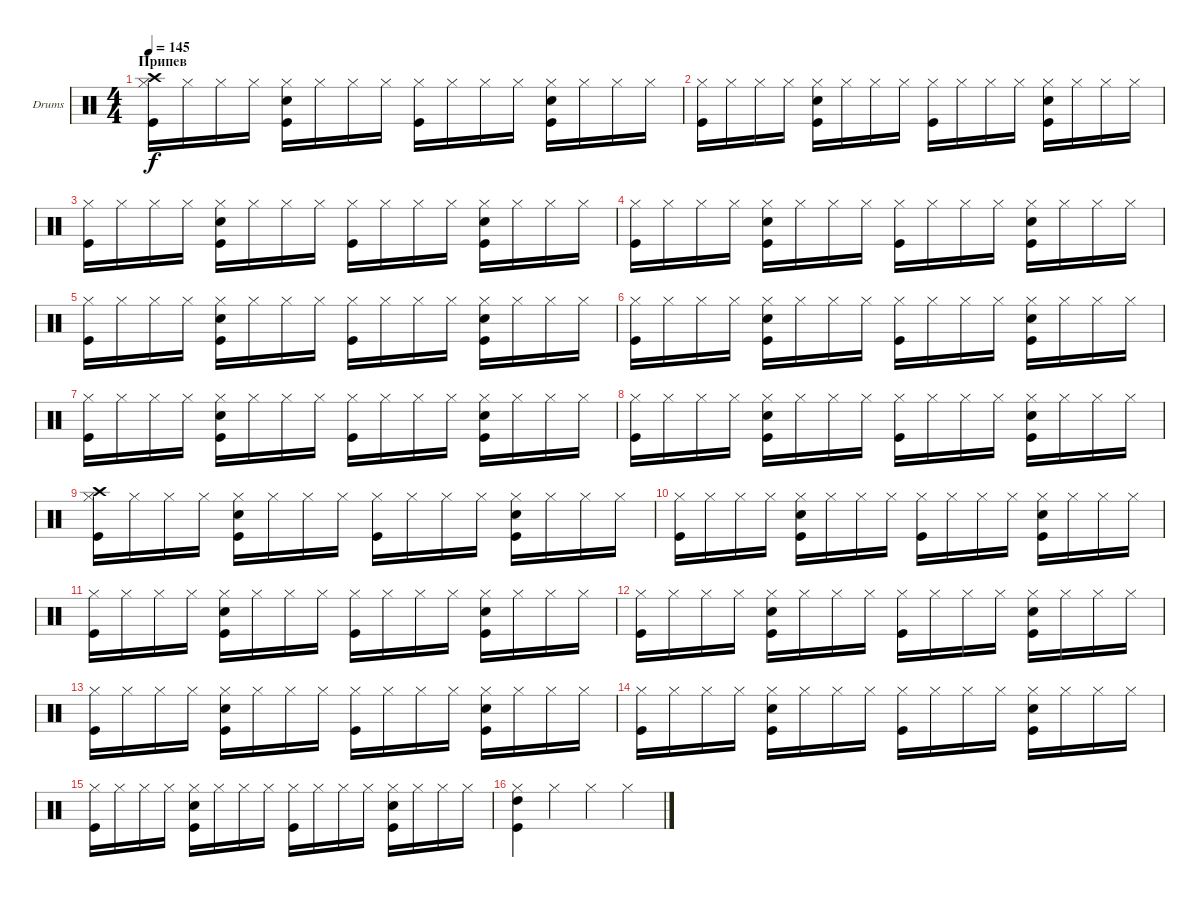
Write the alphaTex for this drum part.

\defaultSystemsLayout 4
\bracketExtendMode groupsimilarinstruments
\firstSystemTrackNameOrientation horizontal
\otherSystemsTrackNameOrientation horizontal
\track ("Drumkit" "Drums") {instrument percussion}
\staff {score}
\articulation defaults
\ts (4 4)
\section ("" "Припев")
\tempo 145
\clef neutral
\ks c
("Hi-Hat (closed)" "Kick (hit)" "Crash high (hit)").16{dy f} "Hi-Hat (closed)".16 "Hi-Hat (closed)".16 "Hi-Hat (closed)".16 ("Hi-Hat (closed)" "Kick (hit)" "Snare (hit) 2").16 "Hi-Hat (closed)".16 "Hi-Hat (closed)".16 "Hi-Hat (closed)".16 ("Hi-Hat (closed)" "Kick (hit)").16 "Hi-Hat (closed)".16 "Hi-Hat (closed)".16 "Hi-Hat (closed)".16 ("Hi-Hat (closed)" "Kick (hit)" "Snare (hit) 2").16 "Hi-Hat (closed)".16 "Hi-Hat (closed)".16 "Hi-Hat (closed)".16 |
("Hi-Hat (closed)" "Kick (hit)").16 "Hi-Hat (closed)".16 "Hi-Hat (closed)".16 "Hi-Hat (closed)".16 ("Hi-Hat (closed)" "Kick (hit)" "Snare (hit) 2").16 "Hi-Hat (closed)".16 "Hi-Hat (closed)".16 "Hi-Hat (closed)".16 ("Hi-Hat (closed)" "Kick (hit)").16 "Hi-Hat (closed)".16 "Hi-Hat (closed)".16 "Hi-Hat (closed)".16 ("Hi-Hat (closed)" "Kick (hit)" "Snare (hit) 2").16 "Hi-Hat (closed)".16 "Hi-Hat (closed)".16 "Hi-Hat (closed)".16 |
("Hi-Hat (closed)" "Kick (hit)").16 "Hi-Hat (closed)".16 "Hi-Hat (closed)".16 "Hi-Hat (closed)".16 ("Hi-Hat (closed)" "Kick (hit)" "Snare (hit) 2").16 "Hi-Hat (closed)".16 "Hi-Hat (closed)".16 "Hi-Hat (closed)".16 ("Hi-Hat (closed)" "Kick (hit)").16 "Hi-Hat (closed)".16 "Hi-Hat (closed)".16 "Hi-Hat (closed)".16 ("Hi-Hat (closed)" "Kick (hit)" "Snare (hit) 2").16 "Hi-Hat (closed)".16 "Hi-Hat (closed)".16 "Hi-Hat (closed)".16 |
("Hi-Hat (closed)" "Kick (hit)").16 "Hi-Hat (closed)".16 "Hi-Hat (closed)".16 "Hi-Hat (closed)".16 ("Hi-Hat (closed)" "Kick (hit)" "Snare (hit) 2").16 "Hi-Hat (closed)".16 "Hi-Hat (closed)".16 "Hi-Hat (closed)".16 ("Hi-Hat (closed)" "Kick (hit)").16 "Hi-Hat (closed)".16 "Hi-Hat (closed)".16 "Hi-Hat (closed)".16 ("Hi-Hat (closed)" "Kick (hit)" "Snare (hit) 2").16 "Hi-Hat (closed)".16 "Hi-Hat (closed)".16 "Hi-Hat (closed)".16 |
("Hi-Hat (closed)" "Kick (hit)").16 "Hi-Hat (closed)".16 "Hi-Hat (closed)".16 "Hi-Hat (closed)".16 ("Hi-Hat (closed)" "Kick (hit)" "Snare (hit) 2").16 "Hi-Hat (closed)".16 "Hi-Hat (closed)".16 "Hi-Hat (closed)".16 ("Hi-Hat (closed)" "Kick (hit)").16 "Hi-Hat (closed)".16 "Hi-Hat (closed)".16 "Hi-Hat (closed)".16 ("Hi-Hat (closed)" "Kick (hit)" "Snare (hit) 2").16 "Hi-Hat (closed)".16 "Hi-Hat (closed)".16 "Hi-Hat (closed)".16 |
("Hi-Hat (closed)" "Kick (hit)").16 "Hi-Hat (closed)".16 "Hi-Hat (closed)".16 "Hi-Hat (closed)".16 ("Hi-Hat (closed)" "Kick (hit)" "Snare (hit) 2").16 "Hi-Hat (closed)".16 "Hi-Hat (closed)".16 "Hi-Hat (closed)".16 ("Hi-Hat (closed)" "Kick (hit)").16 "Hi-Hat (closed)".16 "Hi-Hat (closed)".16 "Hi-Hat (closed)".16 ("Hi-Hat (closed)" "Kick (hit)" "Snare (hit) 2").16 "Hi-Hat (closed)".16 "Hi-Hat (closed)".16 "Hi-Hat (closed)".16 |
("Hi-Hat (closed)" "Kick (hit)").16 "Hi-Hat (closed)".16 "Hi-Hat (closed)".16 "Hi-Hat (closed)".16 ("Hi-Hat (closed)" "Kick (hit)" "Snare (hit) 2").16 "Hi-Hat (closed)".16 "Hi-Hat (closed)".16 "Hi-Hat (closed)".16 ("Hi-Hat (closed)" "Kick (hit)").16 "Hi-Hat (closed)".16 "Hi-Hat (closed)".16 "Hi-Hat (closed)".16 ("Hi-Hat (closed)" "Kick (hit)" "Snare (hit) 2").16 "Hi-Hat (closed)".16 "Hi-Hat (closed)".16 "Hi-Hat (closed)".16 |
("Hi-Hat (closed)" "Kick (hit)").16 "Hi-Hat (closed)".16 "Hi-Hat (closed)".16 "Hi-Hat (closed)".16 ("Hi-Hat (closed)" "Kick (hit)" "Snare (hit) 2").16 "Hi-Hat (closed)".16 "Hi-Hat (closed)".16 "Hi-Hat (closed)".16 ("Hi-Hat (closed)" "Kick (hit)").16 "Hi-Hat (closed)".16 "Hi-Hat (closed)".16 "Hi-Hat (closed)".16 ("Hi-Hat (closed)" "Kick (hit)" "Snare (hit) 2").16 "Hi-Hat (closed)".16 "Hi-Hat (closed)".16 "Hi-Hat (closed)".16 |
("Hi-Hat (closed)" "Kick (hit)" "Crash high (hit)").16 "Hi-Hat (closed)".16 "Hi-Hat (closed)".16 "Hi-Hat (closed)".16 ("Hi-Hat (closed)" "Kick (hit)" "Snare (hit) 2").16 "Hi-Hat (closed)".16 "Hi-Hat (closed)".16 "Hi-Hat (closed)".16 ("Hi-Hat (closed)" "Kick (hit)").16 "Hi-Hat (closed)".16 "Hi-Hat (closed)".16 "Hi-Hat (closed)".16 ("Hi-Hat (closed)" "Kick (hit)" "Snare (hit) 2").16 "Hi-Hat (closed)".16 "Hi-Hat (closed)".16 "Hi-Hat (closed)".16 |
("Hi-Hat (closed)" "Kick (hit)").16 "Hi-Hat (closed)".16 "Hi-Hat (closed)".16 "Hi-Hat (closed)".16 ("Hi-Hat (closed)" "Kick (hit)" "Snare (hit) 2").16 "Hi-Hat (closed)".16 "Hi-Hat (closed)".16 "Hi-Hat (closed)".16 ("Hi-Hat (closed)" "Kick (hit)").16 "Hi-Hat (closed)".16 "Hi-Hat (closed)".16 "Hi-Hat (closed)".16 ("Hi-Hat (closed)" "Kick (hit)" "Snare (hit) 2").16 "Hi-Hat (closed)".16 "Hi-Hat (closed)".16 "Hi-Hat (closed)".16 |
("Hi-Hat (closed)" "Kick (hit)").16 "Hi-Hat (closed)".16 "Hi-Hat (closed)".16 "Hi-Hat (closed)".16 ("Hi-Hat (closed)" "Kick (hit)" "Snare (hit) 2").16 "Hi-Hat (closed)".16 "Hi-Hat (closed)".16 "Hi-Hat (closed)".16 ("Hi-Hat (closed)" "Kick (hit)").16 "Hi-Hat (closed)".16 "Hi-Hat (closed)".16 "Hi-Hat (closed)".16 ("Hi-Hat (closed)" "Kick (hit)" "Snare (hit) 2").16 "Hi-Hat (closed)".16 "Hi-Hat (closed)".16 "Hi-Hat (closed)".16 |
("Hi-Hat (closed)" "Kick (hit)").16 "Hi-Hat (closed)".16 "Hi-Hat (closed)".16 "Hi-Hat (closed)".16 ("Hi-Hat (closed)" "Kick (hit)" "Snare (hit) 2").16 "Hi-Hat (closed)".16 "Hi-Hat (closed)".16 "Hi-Hat (closed)".16 ("Hi-Hat (closed)" "Kick (hit)").16 "Hi-Hat (closed)".16 "Hi-Hat (closed)".16 "Hi-Hat (closed)".16 ("Hi-Hat (closed)" "Kick (hit)" "Snare (hit) 2").16 "Hi-Hat (closed)".16 "Hi-Hat (closed)".16 "Hi-Hat (closed)".16 |
("Hi-Hat (closed)" "Kick (hit)").16 "Hi-Hat (closed)".16 "Hi-Hat (closed)".16 "Hi-Hat (closed)".16 ("Hi-Hat (closed)" "Kick (hit)" "Snare (hit) 2").16 "Hi-Hat (closed)".16 "Hi-Hat (closed)".16 "Hi-Hat (closed)".16 ("Hi-Hat (closed)" "Kick (hit)").16 "Hi-Hat (closed)".16 "Hi-Hat (closed)".16 "Hi-Hat (closed)".16 ("Hi-Hat (closed)" "Kick (hit)" "Snare (hit) 2").16 "Hi-Hat (closed)".16 "Hi-Hat (closed)".16 "Hi-Hat (closed)".16 |
("Hi-Hat (closed)" "Kick (hit)").16 "Hi-Hat (closed)".16 "Hi-Hat (closed)".16 "Hi-Hat (closed)".16 ("Hi-Hat (closed)" "Kick (hit)" "Snare (hit) 2").16 "Hi-Hat (closed)".16 "Hi-Hat (closed)".16 "Hi-Hat (closed)".16 ("Hi-Hat (closed)" "Kick (hit)").16 "Hi-Hat (closed)".16 "Hi-Hat (closed)".16 "Hi-Hat (closed)".16 ("Hi-Hat (closed)" "Kick (hit)" "Snare (hit) 2").16 "Hi-Hat (closed)".16 "Hi-Hat (closed)".16 "Hi-Hat (closed)".16 |
("Hi-Hat (closed)" "Kick (hit)").16 "Hi-Hat (closed)".16 "Hi-Hat (closed)".16 "Hi-Hat (closed)".16 ("Hi-Hat (closed)" "Kick (hit)" "Snare (hit) 2").16 "Hi-Hat (closed)".16 "Hi-Hat (closed)".16 "Hi-Hat (closed)".16 ("Hi-Hat (closed)" "Kick (hit)").16 "Hi-Hat (closed)".16 "Hi-Hat (closed)".16 "Hi-Hat (closed)".16 ("Hi-Hat (closed)" "Kick (hit)" "Snare (hit) 2").16 "Hi-Hat (closed)".16 "Hi-Hat (closed)".16 "Hi-Hat (closed)".16 |
("Kick (hit)" "High Tom (hit)" "Hi-Hat (closed)").4 "Hi-Hat (closed)".4 "Hi-Hat (closed)".4 "Hi-Hat (closed)".4
